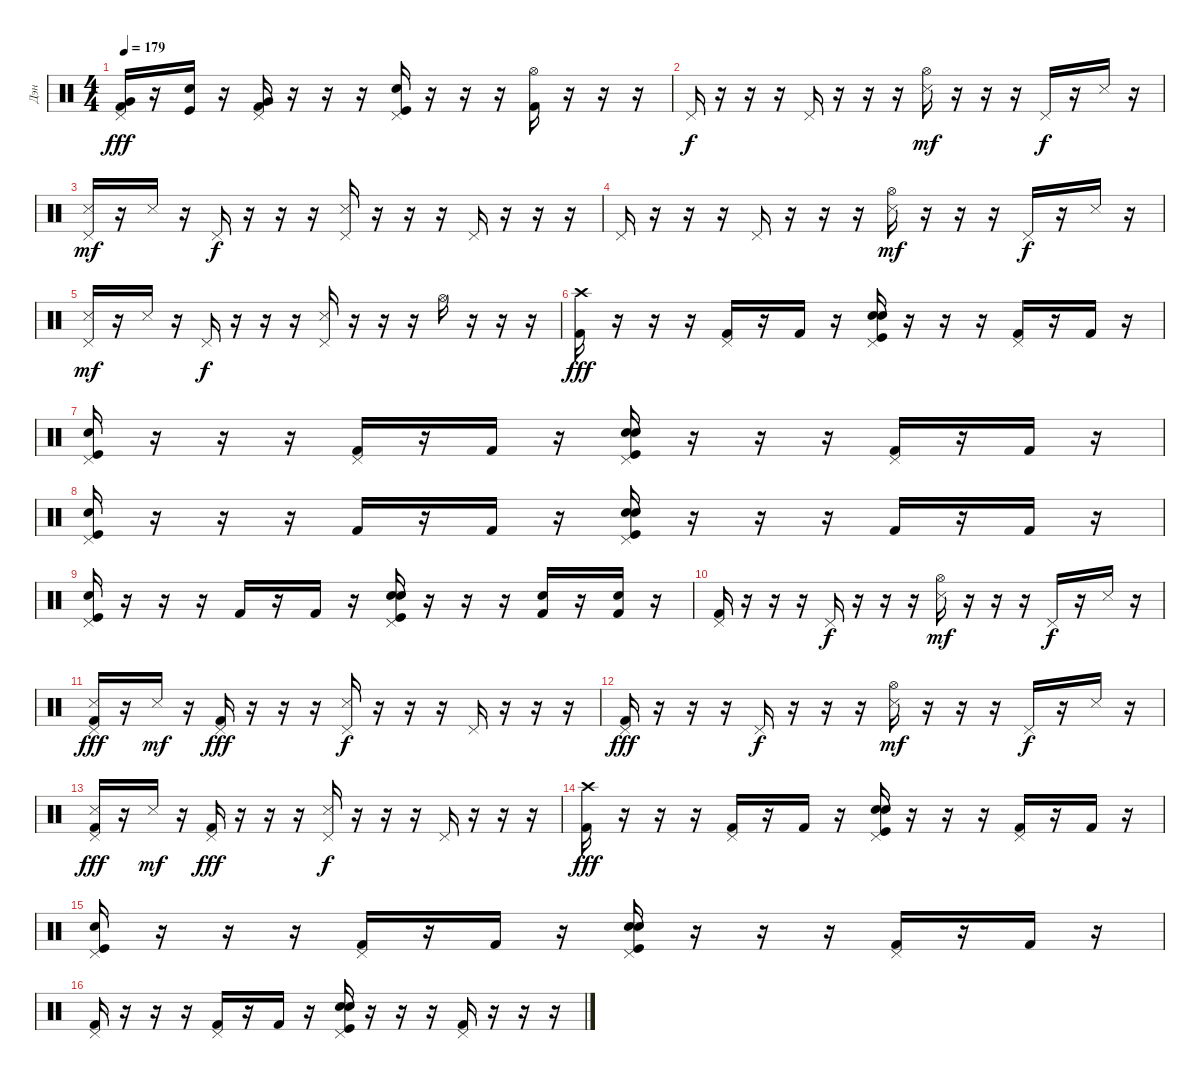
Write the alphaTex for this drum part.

\track ("Дэн" "Дэн") {instrument percussion}
\staff {score}
\articulation defaults
\ts (4 4)
\tempo 179
\clef neutral
\ks c
("Pedal Hi-Hat (hit)" "Very Low Tom (hit)" "Kick (hit) 2").16{dy fff} r.16 ("Electric Snare (hit)" "Kick (hit)").16 r.16 ("Pedal Hi-Hat (hit)" "Very Low Tom (hit)" "Kick (hit) 2").16 r.16 r.16 r.16 ("Pedal Hi-Hat (hit)" "Electric Snare (hit)" "Kick (hit)").16 r.16 r.16 r.16 ("Hi-Hat (open)" "Kick (hit) 2").16 r.16 r.16 r.16 |
"Pedal Hi-Hat (hit)".16{dy f} r.16 r.16 r.16 "Pedal Hi-Hat (hit)".16 r.16 r.16 r.16 ("Hi-Hat (open)" "Snare (side stick) 3").16{dy mf} r.16 r.16 r.16 "Pedal Hi-Hat (hit)".16{dy f} r.16 "Snare (side stick) 3".16 r.16 |
("Pedal Hi-Hat (hit)" "Metronome (hit)").16{dy mf} r.16 "Snare (side stick) 3".16 r.16 "Pedal Hi-Hat (hit)".16{dy f} r.16 r.16 r.16 ("Pedal Hi-Hat (hit)" "Snare (side stick) 3").16 r.16 r.16 r.16 "Pedal Hi-Hat (hit)".16 r.16 r.16 r.16 |
"Pedal Hi-Hat (hit)".16 r.16 r.16 r.16 "Pedal Hi-Hat (hit)".16 r.16 r.16 r.16 ("Hi-Hat (open)" "Snare (side stick) 3").16{dy mf} r.16 r.16 r.16 "Pedal Hi-Hat (hit)".16{dy f} r.16 "Snare (side stick) 3".16 r.16 |
("Pedal Hi-Hat (hit)" "Metronome (hit)").16{dy mf} r.16 "Snare (side stick) 3".16 r.16 "Pedal Hi-Hat (hit)".16{dy f} r.16 r.16 r.16 ("Pedal Hi-Hat (hit)" "Snare (side stick) 3").16 r.16 r.16 r.16 "Hi-Hat (open)".16 r.16 r.16 r.16 |
("Crash high (hit)" "Kick (hit) 2").16{dy fff} r.16 r.16 r.16 ("Pedal Hi-Hat (hit)" "Kick (hit) 2").16 r.16 "Kick (hit) 2".16 r.16 ("Pedal Hi-Hat (hit)" "Electric Snare (hit)" "Snare (hit) 2" "Kick (hit)").16 r.16 r.16 r.16 ("Pedal Hi-Hat (hit)" "Kick (hit) 2").16 r.16 "Kick (hit) 2".16 r.16 |
("Pedal Hi-Hat (hit)" "Electric Snare (hit)" "Kick (hit)").16 r.16 r.16 r.16 ("Pedal Hi-Hat (hit)" "Kick (hit) 2").16 r.16 "Kick (hit) 2".16 r.16 ("Pedal Hi-Hat (hit)" "Electric Snare (hit)" "Snare (hit) 2" "Kick (hit)").16 r.16 r.16 r.16 ("Pedal Hi-Hat (hit)" "Kick (hit) 2").16 r.16 "Kick (hit) 2".16 r.16 |
("Pedal Hi-Hat (hit)" "Electric Snare (hit)" "Kick (hit)").16 r.16 r.16 r.16 "Kick (hit) 2".16 r.16 "Kick (hit) 2".16 r.16 ("Pedal Hi-Hat (hit)" "Electric Snare (hit)" "Snare (hit) 2" "Kick (hit)").16 r.16 r.16 r.16 "Kick (hit) 2".16 r.16 "Kick (hit) 2".16 r.16 |
("Pedal Hi-Hat (hit)" "Electric Snare (hit)" "Kick (hit)").16 r.16 r.16 r.16 "Kick (hit) 2".16 r.16 "Kick (hit) 2".16 r.16 ("Pedal Hi-Hat (hit)" "Electric Snare (hit)" "Snare (hit) 2" "Kick (hit)").16 r.16 r.16 r.16 ("Snare (hit) 2" "Kick (hit) 2").16 r.16 ("Snare (hit) 2" "Kick (hit) 2").16 r.16 |
("Pedal Hi-Hat (hit)" "Kick (hit) 2").16 r.16 r.16 r.16 "Pedal Hi-Hat (hit)".16{dy f} r.16 r.16 r.16 ("Hi-Hat (open)" "Snare (side stick) 3").16{dy mf} r.16 r.16 r.16 "Pedal Hi-Hat (hit)".16{dy f} r.16 "Snare (side stick) 3".16 r.16 |
("Pedal Hi-Hat (hit)" "Metronome (hit)" "Kick (hit) 2").16{dy fff} r.16 "Snare (side stick) 3".16{dy mf} r.16 ("Pedal Hi-Hat (hit)" "Kick (hit) 2").16{dy fff} r.16 r.16 r.16 ("Pedal Hi-Hat (hit)" "Snare (side stick) 3").16{dy f} r.16 r.16 r.16 "Pedal Hi-Hat (hit)".16 r.16 r.16 r.16 |
("Pedal Hi-Hat (hit)" "Kick (hit) 2").16{dy fff} r.16 r.16 r.16 "Pedal Hi-Hat (hit)".16{dy f} r.16 r.16 r.16 ("Hi-Hat (open)" "Snare (side stick) 3").16{dy mf} r.16 r.16 r.16 "Pedal Hi-Hat (hit)".16{dy f} r.16 "Snare (side stick) 3".16 r.16 |
("Pedal Hi-Hat (hit)" "Metronome (hit)" "Kick (hit) 2").16{dy fff} r.16 "Snare (side stick) 3".16{dy mf} r.16 ("Pedal Hi-Hat (hit)" "Kick (hit) 2").16{dy fff} r.16 r.16 r.16 ("Pedal Hi-Hat (hit)" "Snare (side stick) 3").16{dy f} r.16 r.16 r.16 "Pedal Hi-Hat (hit)".16 r.16 r.16 r.16 |
("Crash high (hit)" "Kick (hit) 2").16{dy fff} r.16 r.16 r.16 ("Pedal Hi-Hat (hit)" "Kick (hit) 2").16 r.16 "Kick (hit) 2".16 r.16 ("Pedal Hi-Hat (hit)" "Electric Snare (hit)" "Snare (hit) 2" "Kick (hit)").16 r.16 r.16 r.16 ("Pedal Hi-Hat (hit)" "Kick (hit) 2").16 r.16 "Kick (hit) 2".16 r.16 |
("Pedal Hi-Hat (hit)" "Electric Snare (hit)" "Kick (hit)").16 r.16 r.16 r.16 ("Pedal Hi-Hat (hit)" "Kick (hit) 2").16 r.16 "Kick (hit) 2".16 r.16 ("Pedal Hi-Hat (hit)" "Electric Snare (hit)" "Snare (hit) 2" "Kick (hit)").16 r.16 r.16 r.16 ("Pedal Hi-Hat (hit)" "Kick (hit) 2").16 r.16 "Kick (hit) 2".16 r.16 |
("Pedal Hi-Hat (hit)" "Kick (hit) 2").16 r.16 r.16 r.16 ("Pedal Hi-Hat (hit)" "Kick (hit) 2").16 r.16 "Kick (hit) 2".16 r.16 ("Pedal Hi-Hat (hit)" "Electric Snare (hit)" "Snare (hit) 2" "Kick (hit)").16 r.16 r.16 r.16 ("Pedal Hi-Hat (hit)" "Kick (hit) 2").16 r.16 r.16 r.16
